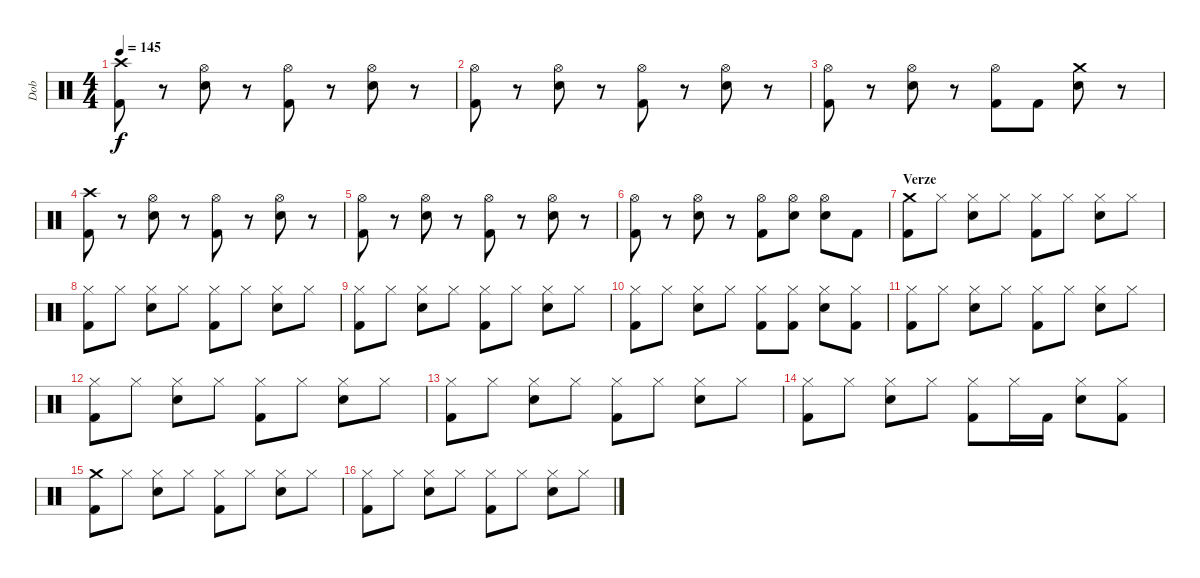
\track ("Dob" "Dob") {instrument percussion}
\staff {score}
\articulation defaults
\ts (4 4)
\tempo 145
\clef neutral
\ks c
("Crash high (hit)" "Kick (hit) 2").8{dy f} r.8 ("Hi-Hat (open)" "Electric Snare (hit)").8 r.8 ("Hi-Hat (open)" "Kick (hit) 2").8 r.8 ("Hi-Hat (open)" "Electric Snare (hit)").8 r.8 |
("Hi-Hat (open)" "Kick (hit) 2").8 r.8 ("Hi-Hat (open)" "Electric Snare (hit)").8 r.8 ("Hi-Hat (open)" "Kick (hit) 2").8 r.8 ("Hi-Hat (open)" "Electric Snare (hit)").8 r.8 |
("Hi-Hat (open)" "Kick (hit) 2").8 r.8 ("Hi-Hat (open)" "Electric Snare (hit)").8 r.8 ("Hi-Hat (open)" "Kick (hit) 2").8 "Kick (hit) 2".8 ("Crash medium (hit)" "Electric Snare (hit)").8 r.8 |
("Crash high (hit)" "Kick (hit) 2").8 r.8 ("Hi-Hat (open)" "Electric Snare (hit)").8 r.8 ("Hi-Hat (open)" "Kick (hit) 2").8 r.8 ("Hi-Hat (open)" "Electric Snare (hit)").8 r.8 |
("Hi-Hat (open)" "Kick (hit) 2").8 r.8 ("Hi-Hat (open)" "Electric Snare (hit)").8 r.8 ("Hi-Hat (open)" "Kick (hit) 2").8 r.8 ("Hi-Hat (open)" "Electric Snare (hit)").8 r.8 |
("Hi-Hat (open)" "Kick (hit) 2").8 r.8 ("Hi-Hat (open)" "Electric Snare (hit)").8 r.8 ("Hi-Hat (open)" "Kick (hit) 2").8 ("Hi-Hat (open)" "Electric Snare (hit)").8 ("Hi-Hat (open)" "Electric Snare (hit)").8 "Kick (hit) 2".8 |
\section ("" "Verze")
("Crash medium (hit)" "Kick (hit) 2").8 "Hi-Hat (closed)".8 ("Hi-Hat (closed)" "Electric Snare (hit)").8 "Hi-Hat (closed)".8 ("Hi-Hat (closed)" "Kick (hit) 2").8 "Hi-Hat (closed)".8 ("Hi-Hat (closed)" "Electric Snare (hit)").8 "Hi-Hat (closed)".8 |
("Hi-Hat (closed)" "Kick (hit) 2").8 "Hi-Hat (closed)".8 ("Hi-Hat (closed)" "Electric Snare (hit)").8 "Hi-Hat (closed)".8 ("Hi-Hat (closed)" "Kick (hit) 2").8 "Hi-Hat (closed)".8 ("Hi-Hat (closed)" "Electric Snare (hit)").8 "Hi-Hat (closed)".8 |
("Hi-Hat (closed)" "Kick (hit) 2").8 "Hi-Hat (closed)".8 ("Hi-Hat (closed)" "Electric Snare (hit)").8 "Hi-Hat (closed)".8 ("Hi-Hat (closed)" "Kick (hit) 2").8 "Hi-Hat (closed)".8 ("Hi-Hat (closed)" "Electric Snare (hit)").8 "Hi-Hat (closed)".8 |
("Hi-Hat (closed)" "Kick (hit) 2").8 "Hi-Hat (closed)".8 ("Hi-Hat (closed)" "Electric Snare (hit)").8 "Hi-Hat (closed)".8 ("Hi-Hat (closed)" "Kick (hit) 2").8 ("Hi-Hat (closed)" "Kick (hit) 2").8 ("Hi-Hat (closed)" "Electric Snare (hit)").8 ("Hi-Hat (closed)" "Kick (hit) 2").8 |
("Hi-Hat (closed)" "Kick (hit) 2").8 "Hi-Hat (closed)".8 ("Hi-Hat (closed)" "Electric Snare (hit)").8 "Hi-Hat (closed)".8 ("Hi-Hat (closed)" "Kick (hit) 2").8 "Hi-Hat (closed)".8 ("Hi-Hat (closed)" "Electric Snare (hit)").8 "Hi-Hat (closed)".8 |
("Hi-Hat (closed)" "Kick (hit) 2").8 "Hi-Hat (closed)".8 ("Hi-Hat (closed)" "Electric Snare (hit)").8 "Hi-Hat (closed)".8 ("Hi-Hat (closed)" "Kick (hit) 2").8 "Hi-Hat (closed)".8 ("Hi-Hat (closed)" "Electric Snare (hit)").8 "Hi-Hat (closed)".8 |
("Hi-Hat (closed)" "Kick (hit) 2").8 "Hi-Hat (closed)".8 ("Hi-Hat (closed)" "Electric Snare (hit)").8 "Hi-Hat (closed)".8 ("Hi-Hat (closed)" "Kick (hit) 2").8 "Hi-Hat (closed)".8 ("Hi-Hat (closed)" "Electric Snare (hit)").8 "Hi-Hat (closed)".8 |
("Hi-Hat (closed)" "Kick (hit) 2").8 "Hi-Hat (closed)".8 ("Hi-Hat (closed)" "Electric Snare (hit)").8 "Hi-Hat (closed)".8 ("Hi-Hat (closed)" "Kick (hit) 2").8 "Hi-Hat (closed)".16 "Kick (hit) 2".16 ("Hi-Hat (closed)" "Electric Snare (hit)").8 ("Hi-Hat (closed)" "Kick (hit) 2").8 |
("Crash medium (hit)" "Kick (hit) 2").8 "Hi-Hat (closed)".8 ("Hi-Hat (closed)" "Electric Snare (hit)").8 "Hi-Hat (closed)".8 ("Hi-Hat (closed)" "Kick (hit) 2").8 "Hi-Hat (closed)".8 ("Hi-Hat (closed)" "Electric Snare (hit)").8 "Hi-Hat (closed)".8 |
("Hi-Hat (closed)" "Kick (hit) 2").8 "Hi-Hat (closed)".8 ("Hi-Hat (closed)" "Electric Snare (hit)").8 "Hi-Hat (closed)".8 ("Hi-Hat (closed)" "Kick (hit) 2").8 "Hi-Hat (closed)".8 ("Hi-Hat (closed)" "Electric Snare (hit)").8 "Hi-Hat (closed)".8
